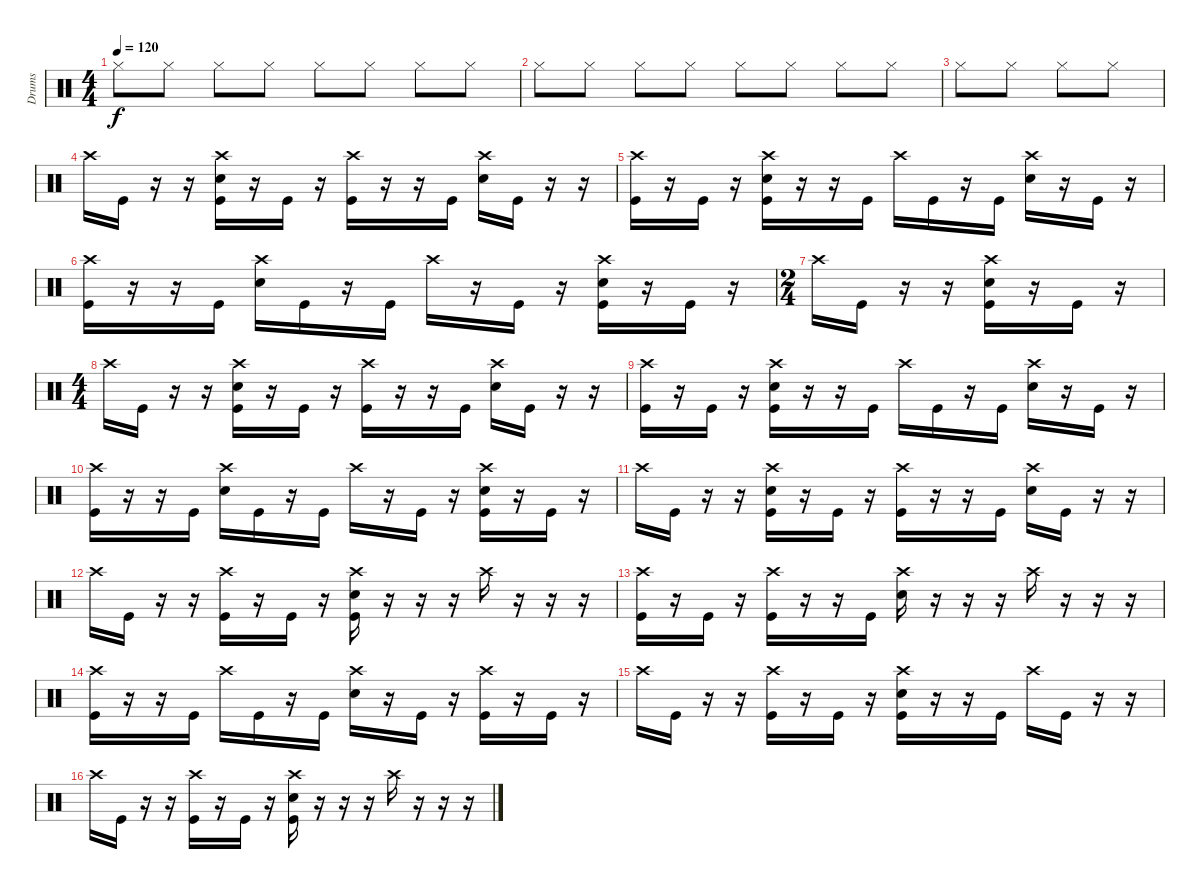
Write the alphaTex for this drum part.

\track ("Drums" "Drums") {instrument percussion}
\staff {score}
\articulation defaults
\ts (4 4)
\tempo 120
\clef neutral
\ks c "Hi-Hat (closed)".8{dy f} "Hi-Hat (closed)".8 "Hi-Hat (closed)".8 "Hi-Hat (closed)".8 "Hi-Hat (closed)".8 "Hi-Hat (closed)".8 "Hi-Hat (closed)".8 "Hi-Hat (closed)".8
|
"Hi-Hat (closed)".8 "Hi-Hat (closed)".8 "Hi-Hat (closed)".8 "Hi-Hat (closed)".8 "Hi-Hat (closed)".8 "Hi-Hat (closed)".8 "Hi-Hat (closed)".8 "Hi-Hat (closed)".8 |
"Hi-Hat (closed)".8 "Hi-Hat (closed)".8 "Hi-Hat (closed)".8 "Hi-Hat (closed)".8 |
"Crash high (hit)".16 "Kick (hit)".16 r.16 r.16 ("Crash high (hit)" "Electric Snare (hit)" "Kick (hit)").16 r.16 "Kick (hit)".16 r.16 ("Crash high (hit)" "Kick (hit)").16 r.16 r.16 "Kick (hit)".16 ("Crash high (hit)" "Electric Snare (hit)").16 "Kick (hit)".16 r.16 r.16 |
("Crash high (hit)" "Kick (hit)").16 r.16 "Kick (hit)".16 r.16 ("Crash high (hit)" "Electric Snare (hit)" "Kick (hit)").16 r.16 r.16 "Kick (hit)".16 "Crash high (hit)".16 "Kick (hit)".16 r.16 "Kick (hit)".16 ("Crash high (hit)" "Electric Snare (hit)").16 r.16 "Kick (hit)".16 r.16 |
("Crash high (hit)" "Kick (hit)").16 r.16 r.16 "Kick (hit)".16 ("Crash high (hit)" "Electric Snare (hit)").16 "Kick (hit)".16 r.16 "Kick (hit)".16 "Crash high (hit)".16 r.16 "Kick (hit)".16 r.16 ("Crash high (hit)" "Electric Snare (hit)" "Kick (hit)").16 r.16 "Kick (hit)".16 r.16 |
\ts (2 4)
"Crash high (hit)".16 "Kick (hit)".16 r.16 r.16 ("Crash high (hit)" "Electric Snare (hit)" "Kick (hit)").16 r.16 "Kick (hit)".16 r.16 |
\ts (4 4)
"Crash high (hit)".16 "Kick (hit)".16 r.16 r.16 ("Crash high (hit)" "Electric Snare (hit)" "Kick (hit)").16 r.16 "Kick (hit)".16 r.16 ("Crash high (hit)" "Kick (hit)").16 r.16 r.16 "Kick (hit)".16 ("Crash high (hit)" "Electric Snare (hit)").16 "Kick (hit)".16 r.16 r.16 |
("Crash high (hit)" "Kick (hit)").16 r.16 "Kick (hit)".16 r.16 ("Crash high (hit)" "Electric Snare (hit)" "Kick (hit)").16 r.16 r.16 "Kick (hit)".16 "Crash high (hit)".16 "Kick (hit)".16 r.16 "Kick (hit)".16 ("Crash high (hit)" "Electric Snare (hit)").16 r.16 "Kick (hit)".16 r.16 |
("Crash high (hit)" "Kick (hit)").16 r.16 r.16 "Kick (hit)".16 ("Crash high (hit)" "Electric Snare (hit)").16 "Kick (hit)".16 r.16 "Kick (hit)".16 "Crash high (hit)".16 r.16 "Kick (hit)".16 r.16 ("Crash high (hit)" "Electric Snare (hit)" "Kick (hit)").16 r.16 "Kick (hit)".16 r.16 |
"Crash high (hit)".16 "Kick (hit)".16 r.16 r.16 ("Crash high (hit)" "Electric Snare (hit)" "Kick (hit)").16 r.16 "Kick (hit)".16 r.16 ("Crash high (hit)" "Kick (hit)").16 r.16 r.16 "Kick (hit)".16 ("Crash high (hit)" "Electric Snare (hit)").16 "Kick (hit)".16 r.16 r.16 |
"Crash high (hit)".16 "Kick (hit)".16 r.16 r.16 ("Crash high (hit)" "Kick (hit)").16 r.16 "Kick (hit)".16 r.16 ("Crash high (hit)" "Electric Snare (hit)" "Kick (hit)").16 r.16 r.16 r.16 "Crash high (hit)".16 r.16 r.16 r.16 |
("Crash high (hit)" "Kick (hit)").16 r.16 "Kick (hit)".16 r.16 ("Crash high (hit)" "Kick (hit)").16 r.16 r.16 "Kick (hit)".16 ("Crash high (hit)" "Electric Snare (hit)").16 r.16 r.16 r.16 "Crash high (hit)".16 r.16 r.16 r.16 |
("Crash high (hit)" "Kick (hit)").16 r.16 r.16 "Kick (hit)".16 "Crash high (hit)".16 "Kick (hit)".16 r.16 "Kick (hit)".16 ("Crash high (hit)" "Electric Snare (hit)").16 r.16 "Kick (hit)".16 r.16 ("Crash high (hit)" "Kick (hit)").16 r.16 "Kick (hit)".16 r.16 |
"Crash high (hit)".16 "Kick (hit)".16 r.16 r.16 ("Crash high (hit)" "Kick (hit)").16 r.16 "Kick (hit)".16 r.16 ("Crash high (hit)" "Electric Snare (hit)" "Kick (hit)").16 r.16 r.16 "Kick (hit)".16 "Crash high (hit)".16 "Kick (hit)".16 r.16 r.16 |
"Crash high (hit)".16 "Kick (hit)".16 r.16 r.16 ("Crash high (hit)" "Kick (hit)").16 r.16 "Kick (hit)".16 r.16 ("Crash high (hit)" "Electric Snare (hit)" "Kick (hit)").16 r.16 r.16 r.16 "Crash high (hit)".16 r.16 r.16 r.16
